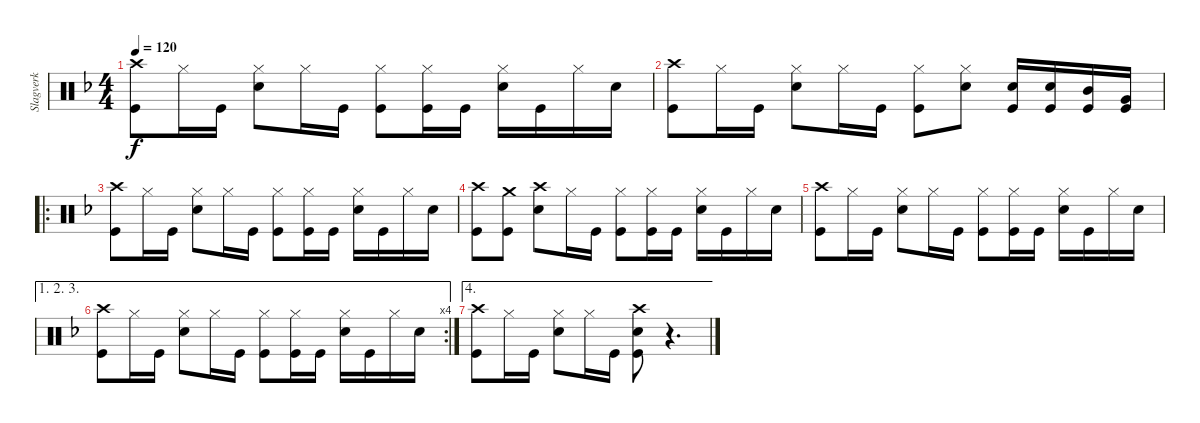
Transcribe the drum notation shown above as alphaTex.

\track ("Slagverk" "Slagverk") {instrument percussion}
\staff {score}
\articulation defaults
\ts (4 4)
\tempo 120
\clef neutral
\ks dminor
("Crash high (hit)" "Kick (hit)").8{dy f} "Hi-Hat (closed)".16 "Kick (hit)".16 ("Hi-Hat (closed)" "Snare (hit) 2").8 "Hi-Hat (closed)".16 "Kick (hit)".16 ("Hi-Hat (closed)" "Kick (hit)").8 ("Hi-Hat (closed)" "Kick (hit)").16 "Kick (hit)".16 ("Hi-Hat (closed)" "Snare (hit) 2").16 "Kick (hit)".16 "Hi-Hat (closed)".16 "Snare (hit) 2".16 |
("Crash high (hit)" "Kick (hit)").8 "Hi-Hat (closed)".16 "Kick (hit)".16 ("Hi-Hat (closed)" "Snare (hit) 2").8 "Hi-Hat (closed)".16 "Kick (hit)".16 ("Hi-Hat (closed)" "Kick (hit)").8 ("Hi-Hat (closed)" "Snare (hit) 2").8 ("Snare (hit) 2" "Kick (hit)").16 ("Snare (hit) 2" "Kick (hit)").16 ("Mid Tom (hit)" "Kick (hit)").16 ("Very Low Tom (hit)" "Kick (hit)").16 |
\ro
("Crash high (hit)" "Kick (hit)").8 "Hi-Hat (closed)".16 "Kick (hit)".16 ("Hi-Hat (closed)" "Snare (hit) 2").8 "Hi-Hat (closed)".16 "Kick (hit)".16 ("Hi-Hat (closed)" "Kick (hit)").8 ("Hi-Hat (closed)" "Kick (hit)").16 "Kick (hit)".16 ("Hi-Hat (closed)" "Snare (hit) 2").16 "Kick (hit)".16 "Hi-Hat (closed)".16 "Snare (hit) 2".16 |
("Crash high (hit)" "Kick (hit)").8 ("Crash medium (hit)" "Kick (hit)").8 ("Crash high (hit)" "Snare (hit) 2").8 "Hi-Hat (closed)".16 "Kick (hit)".16 ("Hi-Hat (closed)" "Kick (hit)").8 ("Hi-Hat (closed)" "Kick (hit)").16 "Kick (hit)".16 ("Hi-Hat (closed)" "Snare (hit) 2").16 "Kick (hit)".16 "Hi-Hat (closed)".16 "Snare (hit) 2".16 |
("Crash high (hit)" "Kick (hit)").8 "Hi-Hat (closed)".16 "Kick (hit)".16 ("Hi-Hat (closed)" "Snare (hit) 2").8 "Hi-Hat (closed)".16 "Kick (hit)".16 ("Hi-Hat (closed)" "Kick (hit)").8 ("Hi-Hat (closed)" "Kick (hit)").16 "Kick (hit)".16 ("Hi-Hat (closed)" "Snare (hit) 2").16 "Kick (hit)".16 "Hi-Hat (closed)".16 "Snare (hit) 2".16 |
\ae (1 2 3)
\rc 4
("Crash high (hit)" "Kick (hit)").8 "Hi-Hat (closed)".16 "Kick (hit)".16 ("Hi-Hat (closed)" "Snare (hit) 2").8 "Hi-Hat (closed)".16 "Kick (hit)".16 ("Hi-Hat (closed)" "Kick (hit)").8 ("Hi-Hat (closed)" "Kick (hit)").16 "Kick (hit)".16 ("Hi-Hat (closed)" "Snare (hit) 2").16 "Kick (hit)".16 "Hi-Hat (closed)".16 "Snare (hit) 2".16 |
\ae 4
("Crash high (hit)" "Kick (hit)").8 "Hi-Hat (closed)".16 "Kick (hit)".16 ("Hi-Hat (closed)" "Snare (hit) 2").8 "Hi-Hat (closed)".16 "Kick (hit)".16 ("Crash high (hit)" "Snare (hit) 2" "Kick (hit)").8 r.4{d}
